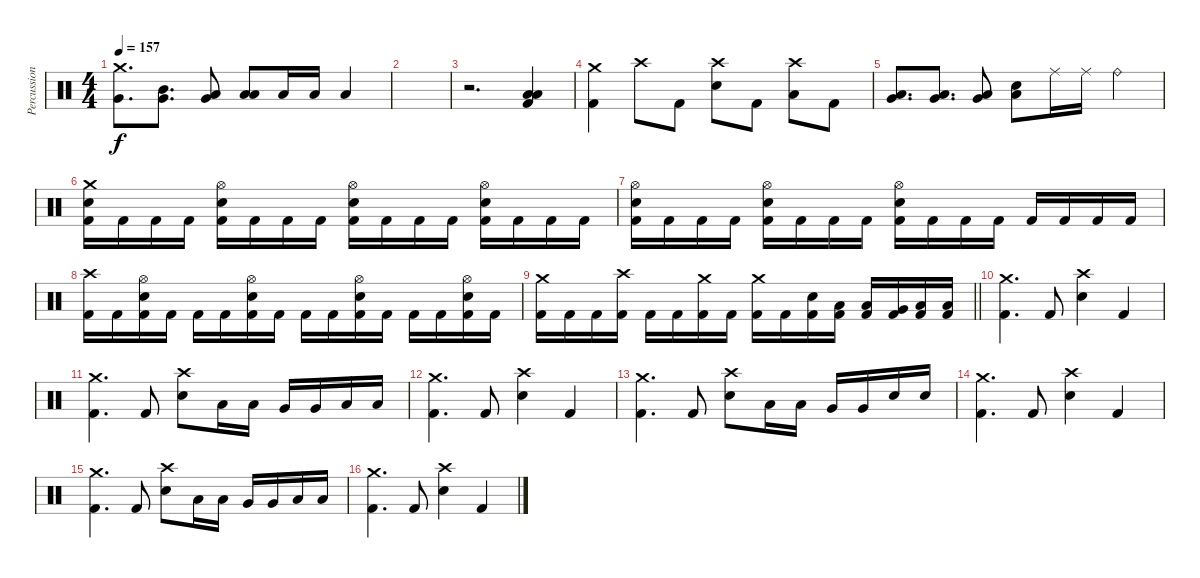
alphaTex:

\track ("Percussion" "Percussion") {instrument percussion}
\staff {score}
\articulation defaults
\ts (4 4)
\tempo 157
\clef neutral
\ks c
("Crash medium (hit)" "Very Low Tom (hit)").8{d dy f} ("Mid Tom (hit)" "Very Low Tom (hit)").8{d} ("Very Low Tom (hit)" "Low Floor Tom (hit)").8 ("Low Floor Tom (hit)" "Low Floor Tom (hit)").8 "Low Tom (hit)".16 "Low Tom (hit)".16 "Low Floor Tom (hit)".4 |
|
r.2{d} ("Low Floor Tom (hit)" "Low Floor Tom (hit)" "Kick (hit) 2").4 |
("Crash medium (hit)" "Kick (hit) 2").4 "Crash high (hit)".8 "Kick (hit) 2".8 ("Crash high (hit)" "Electric Snare (hit)").8 "Kick (hit) 2".8 ("Crash high (hit)" "Low Floor Tom (hit)").8 "Kick (hit) 2".8 |
("Very Low Tom (hit)" "Low Floor Tom (hit)").8{d} ("Very Low Tom (hit)" "Low Floor Tom (hit)").8{d} ("Very Low Tom (hit)" "Low Floor Tom (hit)").8 ("Low Floor Tom (hit)" "Electric Snare (hit)").8 "Ride (middle)".16 "Ride (middle)".16 "Ride (bell)".4 |
("Crash medium (hit)" "Electric Snare (hit)" "Kick (hit) 2").16 "Kick (hit) 2".16 "Kick (hit) 2".16 "Kick (hit) 2".16 ("Hi-Hat (open)" "Electric Snare (hit)" "Kick (hit) 2").16 "Kick (hit) 2".16 "Kick (hit) 2".16 "Kick (hit) 2".16 ("Hi-Hat (open)" "Electric Snare (hit)" "Kick (hit) 2").16 "Kick (hit) 2".16 "Kick (hit) 2".16 "Kick (hit) 2".16 ("Hi-Hat (open)" "Electric Snare (hit)" "Kick (hit) 2").16 "Kick (hit) 2".16 "Kick (hit) 2".16 "Kick (hit) 2".16 |
("Hi-Hat (open)" "Electric Snare (hit)" "Kick (hit) 2").16 "Kick (hit) 2".16 "Kick (hit) 2".16 "Kick (hit) 2".16 ("Hi-Hat (open)" "Electric Snare (hit)" "Kick (hit) 2").16 "Kick (hit) 2".16 "Kick (hit) 2".16 "Kick (hit) 2".16 ("Hi-Hat (open)" "Electric Snare (hit)" "Kick (hit) 2").16 "Kick (hit) 2".16 "Kick (hit) 2".16 "Kick (hit) 2".16 "Kick (hit) 2".16 "Kick (hit) 2".16 "Kick (hit) 2".16 "Kick (hit) 2".16 |
("Crash high (hit)" "Kick (hit) 2").16 "Kick (hit) 2".16 ("Hi-Hat (open)" "Electric Snare (hit)" "Kick (hit) 2").16 "Kick (hit) 2".16 "Kick (hit) 2".16 "Kick (hit) 2".16 ("Hi-Hat (open)" "Electric Snare (hit)" "Kick (hit) 2").16 "Kick (hit) 2".16 "Kick (hit) 2".16 "Kick (hit) 2".16 ("Hi-Hat (open)" "Electric Snare (hit)" "Kick (hit) 2").16 "Kick (hit) 2".16 "Kick (hit) 2".16 "Kick (hit) 2".16 ("Hi-Hat (open)" "Electric Snare (hit)" "Kick (hit) 2").16 "Kick (hit) 2".16 |
\barLineRight lightlight
("Crash medium (hit)" "Kick (hit) 2").16 "Kick (hit) 2".16 "Kick (hit) 2".16 ("Crash high (hit)" "Kick (hit) 2").16 "Kick (hit) 2".16 "Kick (hit) 2".16 ("Crash medium (hit)" "Kick (hit) 2").16 "Kick (hit) 2".16 ("Crash medium (hit)" "Kick (hit) 2").16 "Kick (hit) 2".16 ("Electric Snare (hit)" "Kick (hit) 2").16 ("Low Tom (hit)" "Kick (hit) 2").16 ("Low Tom (hit)" "Kick (hit) 2").16 ("Very Low Tom (hit)" "Kick (hit) 2").16 ("Low Floor Tom (hit)" "Kick (hit) 2").16 ("Low Floor Tom (hit)" "Kick (hit) 2").16 |
("Crash medium (hit)" "Kick (hit) 2").4{d} "Kick (hit) 2".8 ("Crash high (hit)" "Electric Snare (hit)").4 "Kick (hit) 2".4 |
("Crash medium (hit)" "Kick (hit) 2").4{d} "Kick (hit) 2".8 ("Crash high (hit)" "Electric Snare (hit)").8 "Low Tom (hit)".16 "Low Tom (hit)".16 "Very Low Tom (hit)".16 "Very Low Tom (hit)".16 "Low Floor Tom (hit)".16 "Low Floor Tom (hit)".16 |
("Crash medium (hit)" "Kick (hit) 2").4{d} "Kick (hit) 2".8 ("Crash high (hit)" "Electric Snare (hit)").4 "Kick (hit) 2".4 |
("Crash medium (hit)" "Kick (hit) 2").4{d} "Kick (hit) 2".8 ("Crash high (hit)" "Electric Snare (hit)").8 "Low Tom (hit)".16 "Low Tom (hit)".16 "Very Low Tom (hit)".16 "Very Low Tom (hit)".16 "Electric Snare (hit)".16 "Electric Snare (hit)".16 |
("Crash medium (hit)" "Kick (hit) 2").4{d} "Kick (hit) 2".8 ("Crash high (hit)" "Electric Snare (hit)").4 "Kick (hit) 2".4 |
("Crash medium (hit)" "Kick (hit) 2").4{d} "Kick (hit) 2".8 ("Crash high (hit)" "Electric Snare (hit)").8 "Low Tom (hit)".16 "Low Tom (hit)".16 "Very Low Tom (hit)".16 "Very Low Tom (hit)".16 "Low Floor Tom (hit)".16 "Low Floor Tom (hit)".16 |
("Crash medium (hit)" "Kick (hit) 2").4{d} "Kick (hit) 2".8 ("Crash high (hit)" "Electric Snare (hit)").4 "Kick (hit) 2".4
